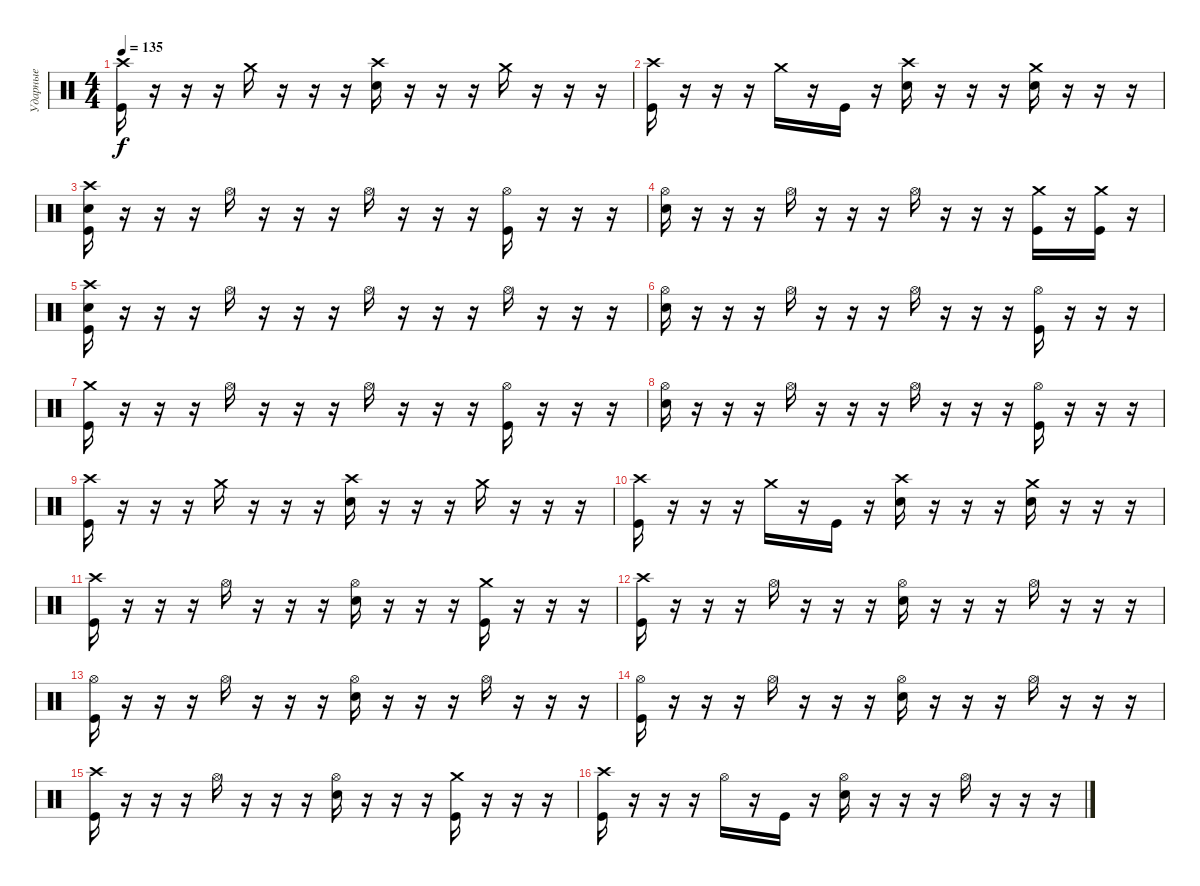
\track ("Ударные" "Ударные") {instrument percussion}
\staff {score}
\articulation defaults
\ts (4 4)
\tempo 135
\clef neutral
\ks c
("Crash high (hit)" "Kick (hit)").16{dy f} r.16 r.16 r.16 "Crash medium (hit)".16 r.16 r.16 r.16 ("Crash high (hit)" "Electric Snare (hit)").16 r.16 r.16 r.16 "Crash medium (hit)".16 r.16 r.16 r.16 |
("Crash high (hit)" "Kick (hit)").16 r.16 r.16 r.16 "Crash medium (hit)".16 r.16 "Kick (hit)".16 r.16 ("Crash high (hit)" "Electric Snare (hit)").16 r.16 r.16 r.16 ("Crash medium (hit)" "Electric Snare (hit)").16 r.16 r.16 r.16 |
("Crash high (hit)" "Electric Snare (hit)" "Kick (hit)").16 r.16 r.16 r.16 "Hi-Hat (open)".16 r.16 r.16 r.16 "Hi-Hat (open)".16 r.16 r.16 r.16 ("Hi-Hat (open)" "Kick (hit)").16 r.16 r.16 r.16 |
("Hi-Hat (open)" "Electric Snare (hit)").16 r.16 r.16 r.16 "Hi-Hat (open)".16 r.16 r.16 r.16 "Hi-Hat (open)".16 r.16 r.16 r.16 ("Crash medium (hit)" "Kick (hit)").16 r.16 ("Crash medium (hit)" "Kick (hit)").16 r.16 |
("Crash high (hit)" "Electric Snare (hit)" "Kick (hit)").16 r.16 r.16 r.16 "Hi-Hat (open)".16 r.16 r.16 r.16 "Hi-Hat (open)".16 r.16 r.16 r.16 "Hi-Hat (open)".16 r.16 r.16 r.16 |
("Hi-Hat (open)" "Electric Snare (hit)").16 r.16 r.16 r.16 "Hi-Hat (open)".16 r.16 r.16 r.16 "Hi-Hat (open)".16 r.16 r.16 r.16 ("Hi-Hat (open)" "Kick (hit)").16 r.16 r.16 r.16 |
("Crash medium (hit)" "Kick (hit)").16 r.16 r.16 r.16 "Hi-Hat (open)".16 r.16 r.16 r.16 "Hi-Hat (open)".16 r.16 r.16 r.16 ("Hi-Hat (open)" "Kick (hit)").16 r.16 r.16 r.16 |
("Hi-Hat (open)" "Electric Snare (hit)").16 r.16 r.16 r.16 "Hi-Hat (open)".16 r.16 r.16 r.16 "Hi-Hat (open)".16 r.16 r.16 r.16 ("Hi-Hat (open)" "Kick (hit)").16 r.16 r.16 r.16 |
("Crash high (hit)" "Kick (hit)").16 r.16 r.16 r.16 "Crash medium (hit)".16 r.16 r.16 r.16 ("Crash high (hit)" "Electric Snare (hit)").16 r.16 r.16 r.16 "Crash medium (hit)".16 r.16 r.16 r.16 |
("Crash high (hit)" "Kick (hit)").16 r.16 r.16 r.16 "Crash medium (hit)".16 r.16 "Kick (hit)".16 r.16 ("Crash high (hit)" "Electric Snare (hit)").16 r.16 r.16 r.16 ("Crash medium (hit)" "Electric Snare (hit)").16 r.16 r.16 r.16 |
("Crash high (hit)" "Kick (hit)").16 r.16 r.16 r.16 "Hi-Hat (open)".16 r.16 r.16 r.16 ("Hi-Hat (open)" "Electric Snare (hit)").16 r.16 r.16 r.16 ("Crash medium (hit)" "Kick (hit)").16 r.16 r.16 r.16 |
("Crash high (hit)" "Kick (hit)").16 r.16 r.16 r.16 "Hi-Hat (open)".16 r.16 r.16 r.16 ("Hi-Hat (open)" "Electric Snare (hit)").16 r.16 r.16 r.16 "Hi-Hat (open)".16 r.16 r.16 r.16 |
("Hi-Hat (open)" "Kick (hit)").16 r.16 r.16 r.16 "Hi-Hat (open)".16 r.16 r.16 r.16 ("Hi-Hat (open)" "Electric Snare (hit)").16 r.16 r.16 r.16 "Hi-Hat (open)".16 r.16 r.16 r.16 |
("Hi-Hat (open)" "Kick (hit)").16 r.16 r.16 r.16 "Hi-Hat (open)".16 r.16 r.16 r.16 ("Hi-Hat (open)" "Electric Snare (hit)").16 r.16 r.16 r.16 "Hi-Hat (open)".16 r.16 r.16 r.16 |
("Crash high (hit)" "Kick (hit)").16 r.16 r.16 r.16 "Hi-Hat (open)".16 r.16 r.16 r.16 ("Hi-Hat (open)" "Electric Snare (hit)").16 r.16 r.16 r.16 ("Crash medium (hit)" "Kick (hit)").16 r.16 r.16 r.16 |
("Crash high (hit)" "Kick (hit)").16 r.16 r.16 r.16 "Hi-Hat (open)".16 r.16 "Kick (hit)".16 r.16 ("Hi-Hat (open)" "Electric Snare (hit)").16 r.16 r.16 r.16 "Hi-Hat (open)".16 r.16 r.16 r.16
